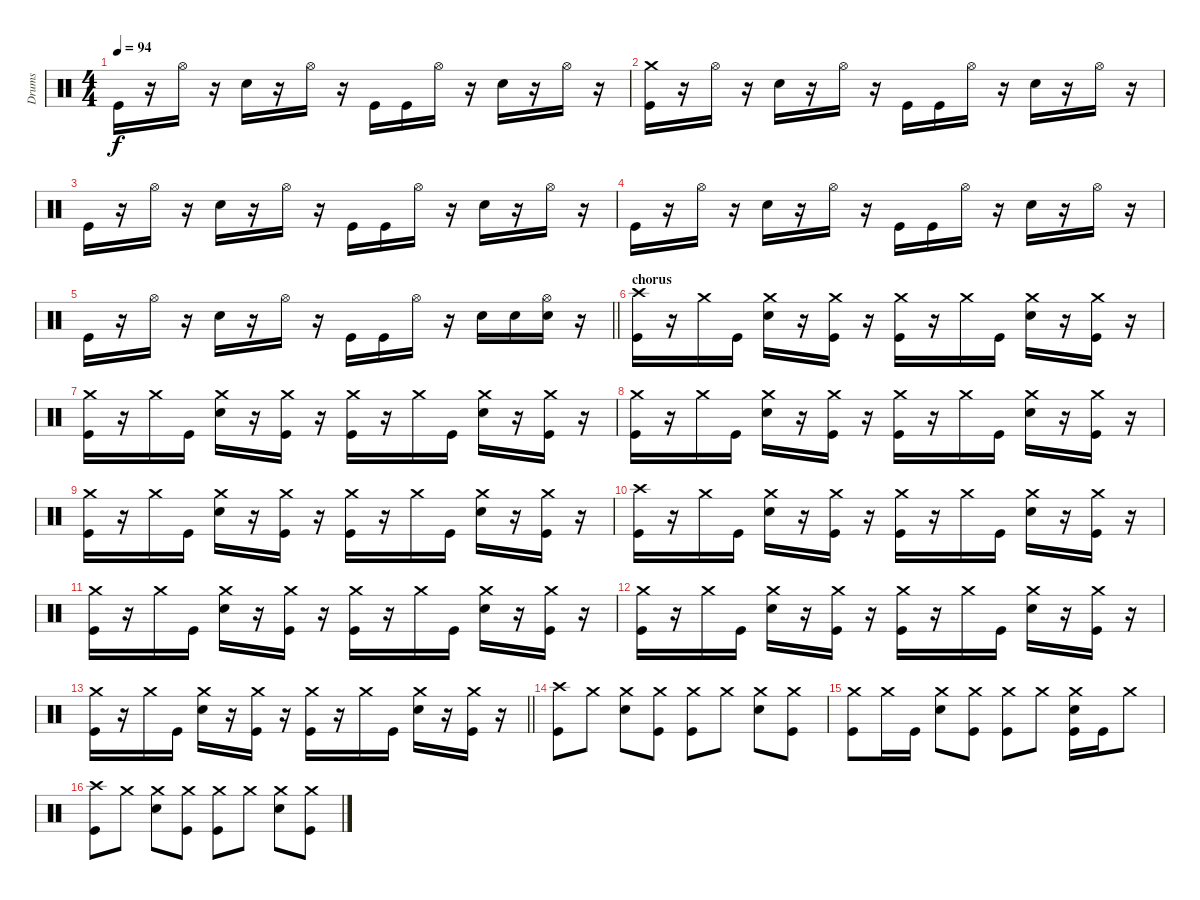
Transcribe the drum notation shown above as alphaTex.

\track ("Drums" "Drums") {instrument percussion}
\staff {score}
\articulation defaults
\ts (4 4)
\tempo 94
\clef neutral
\ks c "Kick (hit)".16{dy f}
r.16 "Hi-Hat (open)".16 r.16 "Electric Snare (hit)".16 r.16 "Hi-Hat (open)".16 r.16 "Kick (hit)".16 "Kick (hit)".16 "Hi-Hat (open)".16 r.16 "Electric Snare (hit)".16 r.16 "Hi-Hat (open)".16 r.16 |
("Crash medium (hit)" "Kick (hit)").16 r.16 "Hi-Hat (open)".16 r.16 "Electric Snare (hit)".16 r.16 "Hi-Hat (open)".16 r.16 "Kick (hit)".16 "Kick (hit)".16 "Hi-Hat (open)".16 r.16 "Electric Snare (hit)".16 r.16 "Hi-Hat (open)".16 r.16 |
"Kick (hit)".16 r.16 "Hi-Hat (open)".16 r.16 "Electric Snare (hit)".16 r.16 "Hi-Hat (open)".16 r.16 "Kick (hit)".16 "Kick (hit)".16 "Hi-Hat (open)".16 r.16 "Electric Snare (hit)".16 r.16 "Hi-Hat (open)".16 r.16 |
"Kick (hit)".16 r.16 "Hi-Hat (open)".16 r.16 "Electric Snare (hit)".16 r.16 "Hi-Hat (open)".16 r.16 "Kick (hit)".16 "Kick (hit)".16 "Hi-Hat (open)".16 r.16 "Electric Snare (hit)".16 r.16 "Hi-Hat (open)".16 r.16 |
\barLineRight lightlight "Kick (hit)".16
r.16 "Hi-Hat (open)".16 r.16 "Electric Snare (hit)".16 r.16 "Hi-Hat (open)".16 r.16 "Kick (hit)".16 "Kick (hit)".16 "Hi-Hat (open)".16 r.16 "Electric Snare (hit)".16 "Electric Snare (hit)".16 ("Hi-Hat (open)" "Electric Snare (hit)").16 r.16 |
\section ("" "chorus")
("Crash high (hit)" "Kick (hit)").16 r.16 "Crash medium (hit)".16 "Kick (hit)".16 ("Crash medium (hit)" "Electric Snare (hit)").16 r.16 ("Crash medium (hit)" "Kick (hit)").16 r.16 ("Crash medium (hit)" "Kick (hit)").16 r.16 "Crash medium (hit)".16 "Kick (hit)".16 ("Crash medium (hit)" "Electric Snare (hit)").16 r.16 ("Crash medium (hit)" "Kick (hit)").16 r.16 |
("Crash medium (hit)" "Kick (hit)").16 r.16 "Crash medium (hit)".16 "Kick (hit)".16 ("Crash medium (hit)" "Electric Snare (hit)").16 r.16 ("Crash medium (hit)" "Kick (hit)").16 r.16 ("Crash medium (hit)" "Kick (hit)").16 r.16 "Crash medium (hit)".16 "Kick (hit)".16 ("Crash medium (hit)" "Electric Snare (hit)").16 r.16 ("Crash medium (hit)" "Kick (hit)").16 r.16 |
("Crash medium (hit)" "Kick (hit)").16 r.16 "Crash medium (hit)".16 "Kick (hit)".16 ("Crash medium (hit)" "Electric Snare (hit)").16 r.16 ("Crash medium (hit)" "Kick (hit)").16 r.16 ("Crash medium (hit)" "Kick (hit)").16 r.16 "Crash medium (hit)".16 "Kick (hit)".16 ("Crash medium (hit)" "Electric Snare (hit)").16 r.16 ("Crash medium (hit)" "Kick (hit)").16 r.16 |
("Crash medium (hit)" "Kick (hit)").16 r.16 "Crash medium (hit)".16 "Kick (hit)".16 ("Crash medium (hit)" "Electric Snare (hit)").16 r.16 ("Crash medium (hit)" "Kick (hit)").16 r.16 ("Crash medium (hit)" "Kick (hit)").16 r.16 "Crash medium (hit)".16 "Kick (hit)".16 ("Crash medium (hit)" "Electric Snare (hit)").16 r.16 ("Crash medium (hit)" "Kick (hit)").16 r.16 |
("Crash high (hit)" "Kick (hit)").16 r.16 "Crash medium (hit)".16 "Kick (hit)".16 ("Crash medium (hit)" "Electric Snare (hit)").16 r.16 ("Crash medium (hit)" "Kick (hit)").16 r.16 ("Crash medium (hit)" "Kick (hit)").16 r.16 "Crash medium (hit)".16 "Kick (hit)".16 ("Crash medium (hit)" "Electric Snare (hit)").16 r.16 ("Crash medium (hit)" "Kick (hit)").16 r.16 |
("Crash medium (hit)" "Kick (hit)").16 r.16 "Crash medium (hit)".16 "Kick (hit)".16 ("Crash medium (hit)" "Electric Snare (hit)").16 r.16 ("Crash medium (hit)" "Kick (hit)").16 r.16 ("Crash medium (hit)" "Kick (hit)").16 r.16 "Crash medium (hit)".16 "Kick (hit)".16 ("Crash medium (hit)" "Electric Snare (hit)").16 r.16 ("Crash medium (hit)" "Kick (hit)").16 r.16 |
("Crash medium (hit)" "Kick (hit)").16 r.16 "Crash medium (hit)".16 "Kick (hit)".16 ("Crash medium (hit)" "Electric Snare (hit)").16 r.16 ("Crash medium (hit)" "Kick (hit)").16 r.16 ("Crash medium (hit)" "Kick (hit)").16 r.16 "Crash medium (hit)".16 "Kick (hit)".16 ("Crash medium (hit)" "Electric Snare (hit)").16 r.16 ("Crash medium (hit)" "Kick (hit)").16 r.16 |
\barLineRight lightlight
("Crash medium (hit)" "Kick (hit)").16 r.16 "Crash medium (hit)".16 "Kick (hit)".16 ("Crash medium (hit)" "Electric Snare (hit)").16 r.16 ("Crash medium (hit)" "Kick (hit)").16 r.16 ("Crash medium (hit)" "Kick (hit)").16 r.16 "Crash medium (hit)".16 "Kick (hit)".16 ("Crash medium (hit)" "Electric Snare (hit)").16 r.16 ("Crash medium (hit)" "Kick (hit)").16 r.16 |
\section ("" "")
("Crash high (hit)" "Kick (hit)").8 "Crash medium (hit)".8 ("Crash medium (hit)" "Electric Snare (hit)").8 ("Crash medium (hit)" "Kick (hit)").8 ("Crash medium (hit)" "Kick (hit)").8 "Crash medium (hit)".8 ("Crash medium (hit)" "Electric Snare (hit)").8 ("Crash medium (hit)" "Kick (hit)").8 |
("Crash medium (hit)" "Kick (hit)").8 "Crash medium (hit)".16 "Kick (hit)".16 ("Crash medium (hit)" "Electric Snare (hit)").8 ("Crash medium (hit)" "Kick (hit)").8 ("Crash medium (hit)" "Kick (hit)").8 "Crash medium (hit)".8 ("Crash medium (hit)" "Electric Snare (hit)" "Kick (hit)").16 "Kick (hit)".16 "Crash medium (hit)".8 |
("Crash high (hit)" "Kick (hit)").8 "Crash medium (hit)".8 ("Crash medium (hit)" "Electric Snare (hit)").8 ("Crash medium (hit)" "Kick (hit)").8 ("Crash medium (hit)" "Kick (hit)").8 "Crash medium (hit)".8 ("Crash medium (hit)" "Electric Snare (hit)").8 ("Crash medium (hit)" "Kick (hit)").8
